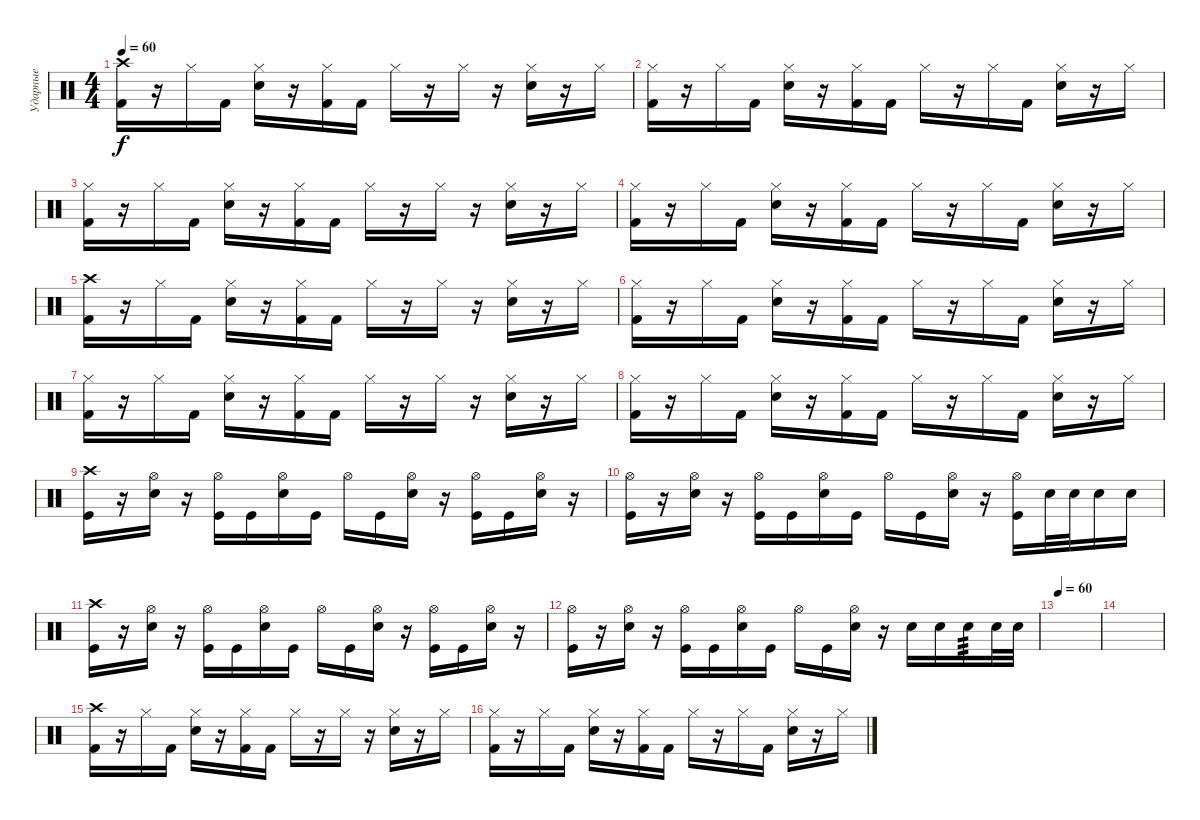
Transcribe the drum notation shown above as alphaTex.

\track ("Ударные" "Ударные") {instrument percussion}
\staff {score}
\articulation defaults
\ts (4 4)
\tempo 60
\clef neutral
\ks c
("Crash high (hit)" "Kick (hit) 2").16{dy f} r.16 "Hi-Hat (closed)".16 "Kick (hit) 2".16 ("Hi-Hat (closed)" "Electric Snare (hit)").16 r.16 ("Hi-Hat (closed)" "Kick (hit) 2").16 "Kick (hit) 2".16 "Hi-Hat (closed)".16 r.16 "Hi-Hat (closed)".16 r.16 ("Hi-Hat (closed)" "Electric Snare (hit)").16 r.16 "Hi-Hat (closed)".16 |
("Hi-Hat (closed)" "Kick (hit) 2").16 r.16 "Hi-Hat (closed)".16 "Kick (hit) 2".16 ("Hi-Hat (closed)" "Electric Snare (hit)").16 r.16 ("Hi-Hat (closed)" "Kick (hit) 2").16 "Kick (hit) 2".16 "Hi-Hat (closed)".16 r.16 "Hi-Hat (closed)".16 "Kick (hit) 2".16 ("Hi-Hat (closed)" "Electric Snare (hit)").16 r.16 "Hi-Hat (closed)".16 |
("Hi-Hat (closed)" "Kick (hit) 2").16 r.16 "Hi-Hat (closed)".16 "Kick (hit) 2".16 ("Hi-Hat (closed)" "Electric Snare (hit)").16 r.16 ("Hi-Hat (closed)" "Kick (hit) 2").16 "Kick (hit) 2".16 "Hi-Hat (closed)".16 r.16 "Hi-Hat (closed)".16 r.16 ("Hi-Hat (closed)" "Electric Snare (hit)").16 r.16 "Hi-Hat (closed)".16 |
("Hi-Hat (closed)" "Kick (hit) 2").16 r.16 "Hi-Hat (closed)".16 "Kick (hit) 2".16 ("Hi-Hat (closed)" "Electric Snare (hit)").16 r.16 ("Hi-Hat (closed)" "Kick (hit) 2").16 "Kick (hit) 2".16 "Hi-Hat (closed)".16 r.16 "Hi-Hat (closed)".16 "Kick (hit) 2".16 ("Hi-Hat (closed)" "Electric Snare (hit)").16 r.16 "Hi-Hat (closed)".16 |
("Crash high (hit)" "Kick (hit) 2").16 r.16 "Hi-Hat (closed)".16 "Kick (hit) 2".16 ("Hi-Hat (closed)" "Electric Snare (hit)").16 r.16 ("Hi-Hat (closed)" "Kick (hit) 2").16 "Kick (hit) 2".16 "Hi-Hat (closed)".16 r.16 "Hi-Hat (closed)".16 r.16 ("Hi-Hat (closed)" "Electric Snare (hit)").16 r.16 "Hi-Hat (closed)".16 |
("Hi-Hat (closed)" "Kick (hit) 2").16 r.16 "Hi-Hat (closed)".16 "Kick (hit) 2".16 ("Hi-Hat (closed)" "Electric Snare (hit)").16 r.16 ("Hi-Hat (closed)" "Kick (hit) 2").16 "Kick (hit) 2".16 "Hi-Hat (closed)".16 r.16 "Hi-Hat (closed)".16 "Kick (hit) 2".16 ("Hi-Hat (closed)" "Electric Snare (hit)").16 r.16 "Hi-Hat (closed)".16 |
("Hi-Hat (closed)" "Kick (hit) 2").16 r.16 "Hi-Hat (closed)".16 "Kick (hit) 2".16 ("Hi-Hat (closed)" "Electric Snare (hit)").16 r.16 ("Hi-Hat (closed)" "Kick (hit) 2").16 "Kick (hit) 2".16 "Hi-Hat (closed)".16 r.16 "Hi-Hat (closed)".16 r.16 ("Hi-Hat (closed)" "Electric Snare (hit)").16 r.16 "Hi-Hat (closed)".16 |
("Hi-Hat (closed)" "Kick (hit) 2").16 r.16 "Hi-Hat (closed)".16 "Kick (hit) 2".16 ("Hi-Hat (closed)" "Electric Snare (hit)").16 r.16 ("Hi-Hat (closed)" "Kick (hit) 2").16 "Kick (hit) 2".16 "Hi-Hat (closed)".16 r.16 "Hi-Hat (closed)".16 "Kick (hit) 2".16 ("Hi-Hat (closed)" "Electric Snare (hit)").16 r.16 "Hi-Hat (closed)".16 |
("Crash high (hit)" "Kick (hit)").16 r.16 ("Hi-Hat (open)" "Electric Snare (hit)").16 r.16 ("Hi-Hat (open)" "Kick (hit)").16 "Kick (hit)".16 ("Hi-Hat (open)" "Electric Snare (hit)").16 "Kick (hit)".16 "Hi-Hat (open)".16 "Kick (hit)".16 ("Hi-Hat (open)" "Electric Snare (hit)").16 r.16 ("Hi-Hat (open)" "Kick (hit)").16 "Kick (hit)".16 ("Hi-Hat (open)" "Electric Snare (hit)").16 r.16 |
("Hi-Hat (open)" "Kick (hit)").16 r.16 ("Hi-Hat (open)" "Electric Snare (hit)").16 r.16 ("Hi-Hat (open)" "Kick (hit)").16 "Kick (hit)".16 ("Hi-Hat (open)" "Electric Snare (hit)").16 "Kick (hit)".16 "Hi-Hat (open)".16 "Kick (hit)".16 ("Hi-Hat (open)" "Electric Snare (hit)").16 r.16 ("Hi-Hat (open)" "Kick (hit)").16 "Electric Snare (hit)".32 "Electric Snare (hit)".32 "Electric Snare (hit)".16 "Electric Snare (hit)".16 |
("Crash high (hit)" "Kick (hit)").16 r.16 ("Hi-Hat (open)" "Electric Snare (hit)").16 r.16 ("Hi-Hat (open)" "Kick (hit)").16 "Kick (hit)".16 ("Hi-Hat (open)" "Electric Snare (hit)").16 "Kick (hit)".16 "Hi-Hat (open)".16 "Kick (hit)".16 ("Hi-Hat (open)" "Electric Snare (hit)").16 r.16 ("Hi-Hat (open)" "Kick (hit)").16 "Kick (hit)".16 ("Hi-Hat (open)" "Electric Snare (hit)").16 r.16 |
("Hi-Hat (open)" "Kick (hit)").16 r.16 ("Hi-Hat (open)" "Electric Snare (hit)").16 r.16 ("Hi-Hat (open)" "Kick (hit)").16 "Kick (hit)".16 ("Hi-Hat (open)" "Electric Snare (hit)").16 "Kick (hit)".16 "Hi-Hat (open)".16 "Kick (hit)".16 ("Hi-Hat (open)" "Electric Snare (hit)").16 r.16 "Electric Snare (hit)".16 "Electric Snare (hit)".16 "Electric Snare (hit)".16{tp 3} "Electric Snare (hit)".32 "Electric Snare (hit)".32 |
\tempo 60
|
|
("Crash high (hit)" "Kick (hit) 2").16 r.16 "Hi-Hat (closed)".16 "Kick (hit) 2".16 ("Hi-Hat (closed)" "Electric Snare (hit)").16 r.16 ("Hi-Hat (closed)" "Kick (hit) 2").16 "Kick (hit) 2".16 "Hi-Hat (closed)".16 r.16 "Hi-Hat (closed)".16 r.16 ("Hi-Hat (closed)" "Electric Snare (hit)").16 r.16 "Hi-Hat (closed)".16 |
("Hi-Hat (closed)" "Kick (hit) 2").16 r.16 "Hi-Hat (closed)".16 "Kick (hit) 2".16 ("Hi-Hat (closed)" "Electric Snare (hit)").16 r.16 ("Hi-Hat (closed)" "Kick (hit) 2").16 "Kick (hit) 2".16 "Hi-Hat (closed)".16 r.16 "Hi-Hat (closed)".16 "Kick (hit) 2".16 ("Hi-Hat (closed)" "Electric Snare (hit)").16 r.16 "Hi-Hat (closed)".16
